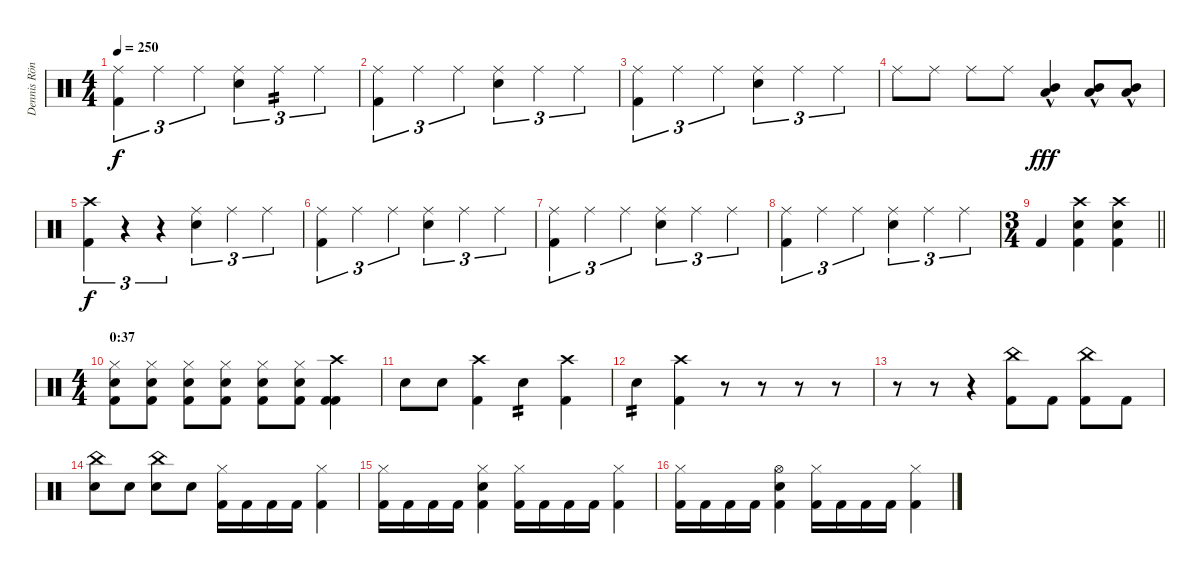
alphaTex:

\track ("Dennis Röndum" "Dennis Rön") {instrument percussion}
\staff {score}
\articulation defaults
\ts (4 4)
\tempo 250
\clef neutral
\ks c
("Ride (middle)" "Kick (hit) 2").4{tu (3 2) dy f} "Ride (middle)".4{tu (3 2)} "Ride (middle)".4{tu (3 2)} ("Ride (middle)" "Snare (hit) 2").4{tu (3 2)} "Ride (middle)".4{tu (3 2) tp 2} "Ride (middle)".4{tu (3 2)} |
("Ride (middle)" "Kick (hit) 2").4{tu (3 2)} "Ride (middle)".4{tu (3 2)} "Ride (middle)".4{tu (3 2)} ("Ride (middle)" "Snare (hit) 2").4{tu (3 2)} "Ride (middle)".4{tu (3 2)} "Ride (middle)".4{tu (3 2)} |
("Ride (middle)" "Kick (hit) 2").4{tu (3 2)} "Ride (middle)".4{tu (3 2)} "Ride (middle)".4{tu (3 2)} ("Ride (middle)" "Snare (hit) 2").4{tu (3 2)} "Ride (middle)".4{tu (3 2)} "Ride (middle)".4{tu (3 2)} |
"Ride (middle)".8 "Ride (middle)".8 "Ride (middle)".8 "Ride (middle)".8 ("Mid Tom (hit)"{hac} "Low Floor Tom (hit)"{hac}).4{dy fff} ("Mid Tom (hit)"{hac} "Low Floor Tom (hit)"{hac}).8 ("Mid Tom (hit)"{hac} "Low Floor Tom (hit)"{hac}).8 |
("Crash high (hit)" "Kick (hit) 2").4{tu (3 2) dy f} r.4{tu (3 2)} r.4{tu (3 2)} ("Ride (middle)" "Snare (hit) 2").4{tu (3 2)} "Ride (middle)".4{tu (3 2)} "Ride (middle)".4{tu (3 2)} |
("Ride (middle)" "Kick (hit) 2").4{tu (3 2)} "Ride (middle)".4{tu (3 2)} "Ride (middle)".4{tu (3 2)} ("Ride (middle)" "Snare (hit) 2").4{tu (3 2)} "Ride (middle)".4{tu (3 2)} "Ride (middle)".4{tu (3 2)} |
("Ride (middle)" "Kick (hit) 2").4{tu (3 2)} "Ride (middle)".4{tu (3 2)} "Ride (middle)".4{tu (3 2)} ("Ride (middle)" "Snare (hit) 2").4{tu (3 2)} "Ride (middle)".4{tu (3 2)} "Ride (middle)".4{tu (3 2)} |
("Ride (middle)" "Kick (hit) 2").4{tu (3 2)} "Ride (middle)".4{tu (3 2)} "Ride (middle)".4{tu (3 2)} ("Ride (middle)" "Snare (hit) 2").4{tu (3 2)} "Ride (middle)".4{tu (3 2)} "Ride (middle)".4{tu (3 2)} |
\ts (3 4)
\barLineRight lightlight "Kick (hit) 2".4
("Crash high (hit)" "Snare (hit) 2" "Kick (hit) 2").4 ("Crash high (hit)" "Snare (hit) 2" "Kick (hit) 2").4 |
\ts (4 4)
\section ("" "0:37")
("Hi-Hat (closed)" "Snare (hit) 2" "Kick (hit) 2").8 ("Hi-Hat (closed)" "Snare (hit) 2" "Kick (hit) 2").8 ("Hi-Hat (closed)" "Snare (hit) 2" "Kick (hit) 2").8 ("Hi-Hat (closed)" "Snare (hit) 2" "Kick (hit) 2").8 ("Hi-Hat (closed)" "Snare (hit) 2" "Kick (hit) 2").8 ("Hi-Hat (closed)" "Snare (hit) 2" "Kick (hit) 2").8 ("Crash high (hit)" "Kick (hit) 2" "Kick (hit) 2").4 |
"Snare (hit) 2".8 "Snare (hit) 2".8 ("Crash high (hit)" "Kick (hit) 2").4 "Snare (hit) 2".4{tp 2} ("Crash high (hit)" "Kick (hit) 2").4 |
"Snare (hit) 2".4{tp 2} ("Crash high (hit)" "Kick (hit) 2").4 r.8 r.8 r.8 r.8 |
r.8 r.8 r.4 ("China (hit)" "Kick (hit) 2").8 "Kick (hit) 2".8 ("China (hit)" "Kick (hit) 2").8 "Kick (hit) 2".8 |
("China (hit)" "Snare (hit) 2").8 "Snare (hit) 2".8 ("China (hit)" "Snare (hit) 2").8 "Snare (hit) 2".8 ("Hi-Hat (closed)" "Kick (hit) 2").16 "Kick (hit) 2".16 "Kick (hit) 2".16 "Kick (hit) 2".16 ("Hi-Hat (closed)" "Kick (hit) 2").4 |
("Hi-Hat (closed)" "Kick (hit) 2").16 "Kick (hit) 2".16 "Kick (hit) 2".16 "Kick (hit) 2".16 ("Hi-Hat (closed)" "Snare (hit) 2" "Kick (hit) 2").4 ("Hi-Hat (closed)" "Kick (hit) 2").16 "Kick (hit) 2".16 "Kick (hit) 2".16 "Kick (hit) 2".16 ("Hi-Hat (closed)" "Kick (hit) 2").4 |
("Hi-Hat (closed)" "Kick (hit) 2").16 "Kick (hit) 2".16 "Kick (hit) 2".16 "Kick (hit) 2".16 ("Hi-Hat (open)" "Snare (hit) 2" "Kick (hit) 2").4 ("Hi-Hat (closed)" "Kick (hit) 2").16 "Kick (hit) 2".16 "Kick (hit) 2".16 "Kick (hit) 2".16 ("Hi-Hat (closed)" "Kick (hit) 2").4
